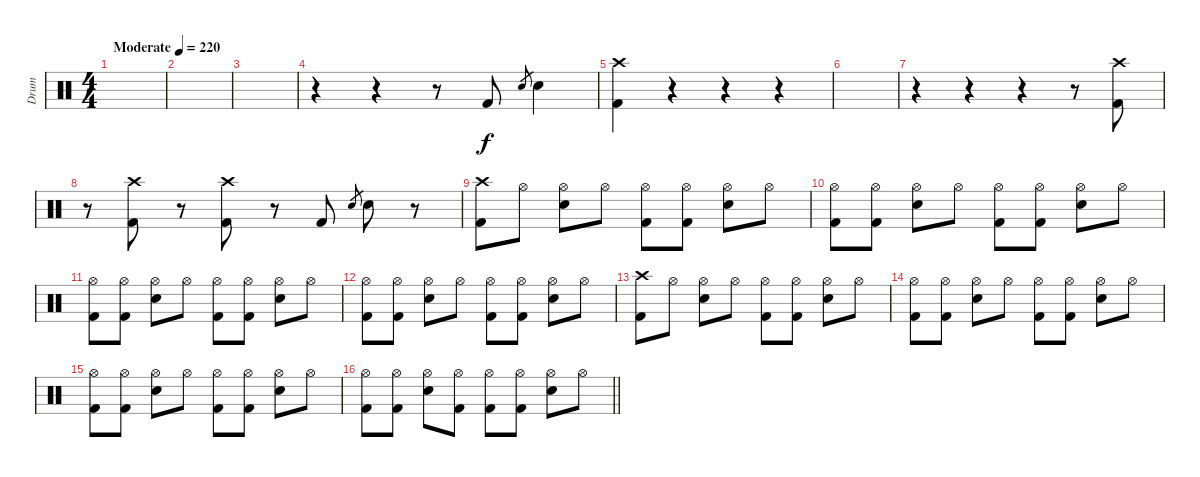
\track ("Drum" "Drum") {instrument percussion}
\staff {score}
\articulation defaults
\ts (4 4)
\tempo (220 "Moderate")
\clef neutral
\ks c
|
|
|
r.4 r.4 r.8 "Kick (hit) 2".8 "Electric Snare (hit)".8{gr} "Electric Snare (hit)".4 |
("Crash high (hit)" "Kick (hit) 2").4 r.4 r.4 r.4 |
|
r.4 r.4 r.4 r.8 ("Crash high (hit)" "Kick (hit) 2").8 |
r.8 ("Crash high (hit)" "Kick (hit) 2").8 r.8 ("Crash high (hit)" "Kick (hit) 2").8 r.8 "Kick (hit) 2".8 "Electric Snare (hit)".8{gr} "Electric Snare (hit)".8 r.8 |
("Crash high (hit)" "Kick (hit) 2").8 "Hi-Hat (open)".8 ("Electric Snare (hit)" "Hi-Hat (open)").8 "Hi-Hat (open)".8 ("Kick (hit) 2" "Hi-Hat (open)").8 ("Kick (hit) 2" "Hi-Hat (open)").8 ("Electric Snare (hit)" "Hi-Hat (open)").8 "Hi-Hat (open)".8 |
("Kick (hit) 2" "Hi-Hat (open)").8 ("Kick (hit) 2" "Hi-Hat (open)").8 ("Electric Snare (hit)" "Hi-Hat (open)").8 "Hi-Hat (open)".8 ("Kick (hit) 2" "Hi-Hat (open)").8 ("Kick (hit) 2" "Hi-Hat (open)").8 ("Electric Snare (hit)" "Hi-Hat (open)").8 "Hi-Hat (open)".8 |
("Kick (hit) 2" "Hi-Hat (open)").8 ("Kick (hit) 2" "Hi-Hat (open)").8 ("Electric Snare (hit)" "Hi-Hat (open)").8 "Hi-Hat (open)".8 ("Kick (hit) 2" "Hi-Hat (open)").8 ("Kick (hit) 2" "Hi-Hat (open)").8 ("Electric Snare (hit)" "Hi-Hat (open)").8 "Hi-Hat (open)".8 |
("Kick (hit) 2" "Hi-Hat (open)").8 ("Kick (hit) 2" "Hi-Hat (open)").8 ("Electric Snare (hit)" "Hi-Hat (open)").8 "Hi-Hat (open)".8 ("Kick (hit) 2" "Hi-Hat (open)").8 ("Kick (hit) 2" "Hi-Hat (open)").8 ("Electric Snare (hit)" "Hi-Hat (open)").8 "Hi-Hat (open)".8 |
("Crash high (hit)" "Kick (hit) 2").8 "Hi-Hat (open)".8 ("Electric Snare (hit)" "Hi-Hat (open)").8 "Hi-Hat (open)".8 ("Kick (hit) 2" "Hi-Hat (open)").8 ("Kick (hit) 2" "Hi-Hat (open)").8 ("Electric Snare (hit)" "Hi-Hat (open)").8 "Hi-Hat (open)".8 |
("Kick (hit) 2" "Hi-Hat (open)").8 ("Kick (hit) 2" "Hi-Hat (open)").8 ("Electric Snare (hit)" "Hi-Hat (open)").8 "Hi-Hat (open)".8 ("Kick (hit) 2" "Hi-Hat (open)").8 ("Kick (hit) 2" "Hi-Hat (open)").8 ("Electric Snare (hit)" "Hi-Hat (open)").8 "Hi-Hat (open)".8 |
("Kick (hit) 2" "Hi-Hat (open)").8 ("Kick (hit) 2" "Hi-Hat (open)").8 ("Electric Snare (hit)" "Hi-Hat (open)").8 "Hi-Hat (open)".8 ("Kick (hit) 2" "Hi-Hat (open)").8 ("Kick (hit) 2" "Hi-Hat (open)").8 ("Electric Snare (hit)" "Hi-Hat (open)").8 "Hi-Hat (open)".8 |
\barLineRight lightlight
("Kick (hit) 2" "Hi-Hat (open)").8 ("Kick (hit) 2" "Hi-Hat (open)").8 ("Electric Snare (hit)" "Hi-Hat (open)").8 ("Kick (hit) 2" "Hi-Hat (open)").8 ("Kick (hit) 2" "Hi-Hat (open)").8 ("Kick (hit) 2" "Hi-Hat (open)").8 ("Electric Snare (hit)" "Hi-Hat (open)").8 "Hi-Hat (open)".8
